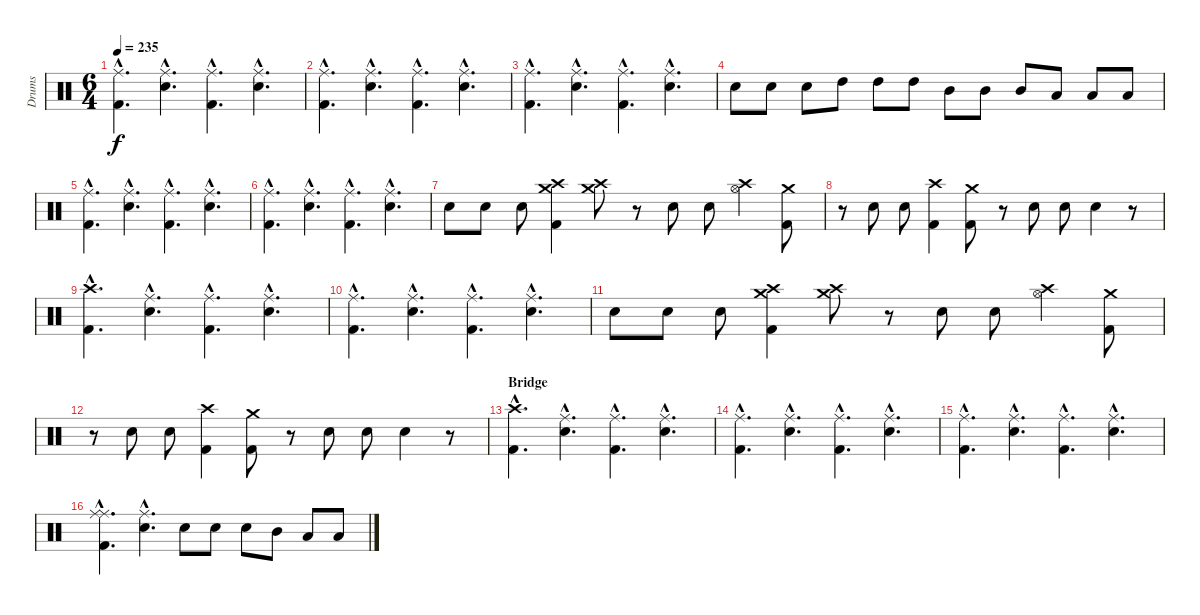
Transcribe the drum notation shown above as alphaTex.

\track ("Drums" "Drums") {instrument percussion}
\staff {score}
\articulation defaults
\ts (6 4)
\tempo 235
\clef neutral
\ks c
("Ride (middle)"{hac} "Kick (hit) 2"{hac}).4{d dy f} ("Ride (middle)"{hac} "Snare (hit) 2"{hac}).4{d} ("Ride (middle)"{hac} "Kick (hit) 2"{hac}).4{d} ("Ride (middle)"{hac} "Snare (hit) 2"{hac}).4{d} |
("Ride (middle)"{hac} "Kick (hit) 2"{hac}).4{d} ("Ride (middle)"{hac} "Snare (hit) 2"{hac}).4{d} ("Ride (middle)"{hac} "Kick (hit) 2"{hac}).4{d} ("Ride (middle)"{hac} "Snare (hit) 2"{hac}).4{d} |
("Ride (middle)"{hac} "Kick (hit) 2"{hac}).4{d} ("Ride (middle)"{hac} "Snare (hit) 2"{hac}).4{d} ("Ride (middle)"{hac} "Kick (hit) 2"{hac}).4{d} ("Ride (middle)"{hac} "Snare (hit) 2"{hac}).4{d} |
"Snare (hit) 2".8 "Snare (hit) 2".8 "Snare (hit) 2".8 "High Tom (hit)".8 "High Tom (hit)".8 "High Tom (hit)".8 "Mid Tom (hit)".8 "Mid Tom (hit)".8 "Mid Tom (hit)".8 "Low Tom (hit)".8 "Low Tom (hit)".8 "Low Tom (hit)".8 |
("Ride (middle)"{hac} "Kick (hit) 2"{hac}).4{d} ("Ride (middle)"{hac} "Snare (hit) 2"{hac}).4{d} ("Ride (middle)"{hac} "Kick (hit) 2"{hac}).4{d} ("Ride (middle)"{hac} "Snare (hit) 2"{hac}).4{d} |
("Ride (middle)"{hac} "Kick (hit) 2"{hac}).4{d} ("Ride (middle)"{hac} "Snare (hit) 2"{hac}).4{d} ("Ride (middle)"{hac} "Kick (hit) 2"{hac}).4{d} ("Ride (middle)"{hac} "Snare (hit) 2"{hac}).4{d} |
"Snare (hit) 2".8 "Snare (hit) 2".8 "Snare (hit) 2".8 ("Crash medium (hit)" "Crash high (hit)" "Kick (hit) 2").4 ("Crash high (hit)" "Crash medium (hit)").8 r.8 "Snare (hit) 2".8 "Snare (hit) 2".8 ("Crash high (hit)" "Hi-Hat (open)").4 ("Crash medium (hit)" "Kick (hit) 2").8 |
r.8 "Snare (hit) 2".8 "Snare (hit) 2".8 ("Crash high (hit)" "Kick (hit) 2").4 ("Crash medium (hit)" "Kick (hit) 2").8 r.8 "Snare (hit) 2".8 "Snare (hit) 2".8 "Snare (hit) 2".4 r.8 |
("Crash high (hit)"{hac} "Kick (hit) 2"{hac}).4{d} ("Ride (middle)"{hac} "Snare (hit) 2"{hac}).4{d} ("Ride (middle)"{hac} "Kick (hit) 2"{hac}).4{d} ("Ride (middle)"{hac} "Snare (hit) 2"{hac}).4{d} |
("Ride (middle)"{hac} "Kick (hit) 2"{hac}).4{d} ("Ride (middle)"{hac} "Snare (hit) 2"{hac}).4{d} ("Ride (middle)"{hac} "Kick (hit) 2"{hac}).4{d} ("Ride (middle)"{hac} "Snare (hit) 2"{hac}).4{d} |
"Snare (hit) 2".8 "Snare (hit) 2".8 "Snare (hit) 2".8 ("Crash medium (hit)" "Crash high (hit)" "Kick (hit) 2").4 ("Crash high (hit)" "Crash medium (hit)").8 r.8 "Snare (hit) 2".8 "Snare (hit) 2".8 ("Crash high (hit)" "Hi-Hat (open)").4 ("Crash medium (hit)" "Kick (hit) 2").8 |
r.8 "Snare (hit) 2".8 "Snare (hit) 2".8 ("Crash high (hit)" "Kick (hit) 2").4 ("Crash medium (hit)" "Kick (hit) 2").8 r.8 "Snare (hit) 2".8 "Snare (hit) 2".8 "Snare (hit) 2".4 r.8 |
\section ("" "Bridge")
("Crash high (hit)"{hac} "Kick (hit) 2"{hac}).4{d} ("Ride (middle)"{hac} "Snare (hit) 2"{hac}).4{d} ("Ride (middle)"{hac} "Kick (hit) 2"{hac}).4{d} ("Ride (middle)"{hac} "Snare (hit) 2"{hac}).4{d} |
("Ride (middle)"{hac} "Kick (hit) 2"{hac}).4{d} ("Ride (middle)"{hac} "Snare (hit) 2"{hac}).4{d} ("Ride (middle)"{hac} "Kick (hit) 2"{hac}).4{d} ("Ride (middle)"{hac} "Snare (hit) 2"{hac}).4{d} |
("Ride (middle)"{hac} "Kick (hit) 2"{hac}).4{d} ("Ride (middle)"{hac} "Snare (hit) 2"{hac}).4{d} ("Ride (middle)"{hac} "Kick (hit) 2"{hac}).4{d} ("Ride (middle)"{hac} "Snare (hit) 2"{hac}).4{d} |
("Ride (middle)"{hac} "Ride (middle)"{hac} "Kick (hit) 2"{hac}).4{d} ("Ride (middle)"{hac} "Snare (hit) 2"{hac}).4{d} "Snare (hit) 2".8 "Snare (hit) 2".8 "Snare (hit) 2".8 "Mid Tom (hit)".8 "Low Tom (hit)".8 "Low Tom (hit)".8
